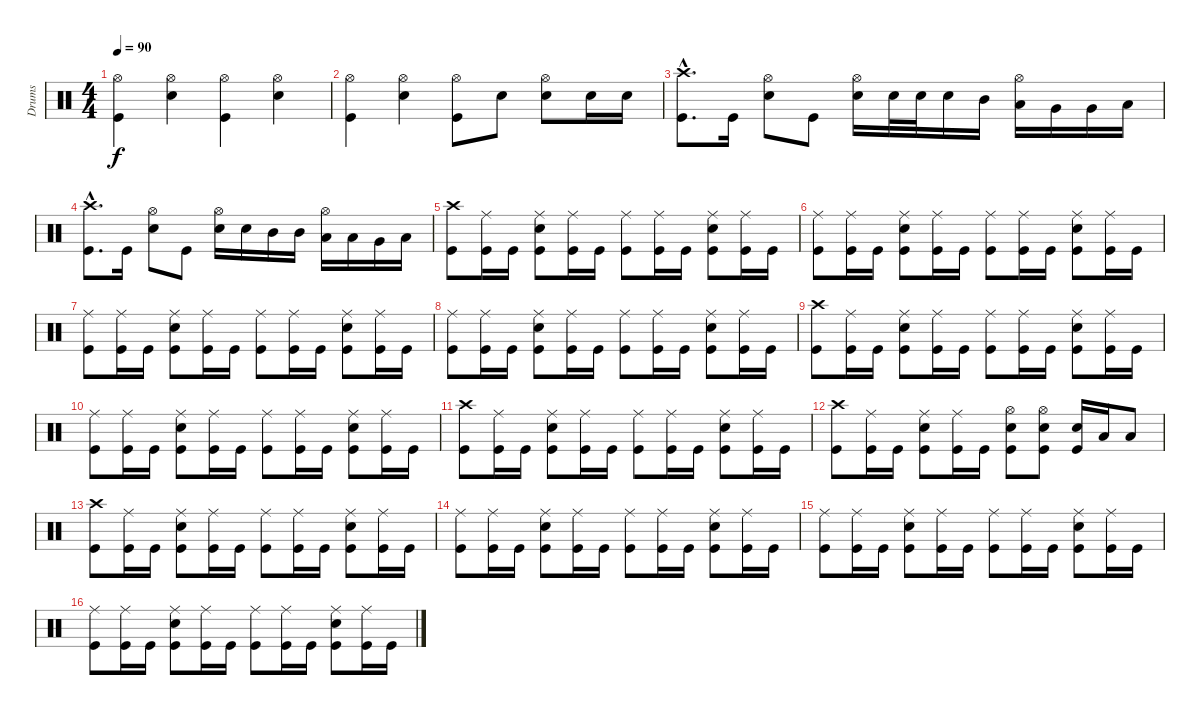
\track ("Drums" "Drums") {instrument percussion}
\staff {score}
\articulation defaults
\ts (4 4)
\tempo 90
\clef neutral
\ks c
("Hi-Hat (open)" "Kick (hit)").4{dy f} ("Hi-Hat (open)" "Electric Snare (hit)").4 ("Hi-Hat (open)" "Kick (hit)").4 ("Hi-Hat (open)" "Electric Snare (hit)").4 |
("Hi-Hat (open)" "Kick (hit)").4 ("Hi-Hat (open)" "Electric Snare (hit)").4 ("Hi-Hat (open)" "Kick (hit)").8 "Electric Snare (hit)".8 ("Hi-Hat (open)" "Electric Snare (hit)").8 "Electric Snare (hit)".16 "Electric Snare (hit)".16 |
("Crash high (hit)"{hac} "Kick (hit)"{hac}).8{d} "Kick (hit)".16 ("Hi-Hat (open)" "Electric Snare (hit)").8 "Kick (hit)".8 ("Hi-Hat (open)" "Electric Snare (hit)").16 "Electric Snare (hit)".32 "Electric Snare (hit)".32 "Electric Snare (hit)".16 "Mid Tom (hit)".16 ("Hi-Hat (open)" "Low Tom (hit)").16 "Very Low Tom (hit)".16 "Very Low Tom (hit)".16 "Low Floor Tom (hit)".16 |
("Crash high (hit)"{hac} "Kick (hit)"{hac}).8{d} "Kick (hit)".16 ("Hi-Hat (open)" "Electric Snare (hit)").8 "Kick (hit)".8 ("Hi-Hat (open)" "Electric Snare (hit)").16 "Electric Snare (hit)".16 "Mid Tom (hit)".16 "Mid Tom (hit)".16 ("Hi-Hat (open)" "Low Tom (hit)").16 "Low Tom (hit)".16 "Very Low Tom (hit)".16 "Low Floor Tom (hit)".16 |
("Crash high (hit)" "Kick (hit)").8 ("Ride (middle)" "Kick (hit)").16 "Kick (hit)".16 ("Ride (middle)" "Electric Snare (hit)" "Kick (hit)").8 ("Ride (middle)" "Kick (hit)").16 "Kick (hit)".16 ("Ride (middle)" "Kick (hit)").8 ("Ride (middle)" "Kick (hit)").16 "Kick (hit)".16 ("Ride (middle)" "Electric Snare (hit)" "Kick (hit)").8 ("Ride (middle)" "Kick (hit)").16 "Kick (hit)".16 |
("Ride (middle)" "Kick (hit)").8 ("Ride (middle)" "Kick (hit)").16 "Kick (hit)".16 ("Ride (middle)" "Electric Snare (hit)" "Kick (hit)").8 ("Ride (middle)" "Kick (hit)").16 "Kick (hit)".16 ("Ride (middle)" "Kick (hit)").8 ("Ride (middle)" "Kick (hit)").16 "Kick (hit)".16 ("Ride (middle)" "Electric Snare (hit)" "Kick (hit)").8 ("Ride (middle)" "Kick (hit)").16 "Kick (hit)".16 |
("Ride (middle)" "Kick (hit)").8 ("Ride (middle)" "Kick (hit)").16 "Kick (hit)".16 ("Ride (middle)" "Electric Snare (hit)" "Kick (hit)").8 ("Ride (middle)" "Kick (hit)").16 "Kick (hit)".16 ("Ride (middle)" "Kick (hit)").8 ("Ride (middle)" "Kick (hit)").16 "Kick (hit)".16 ("Ride (middle)" "Electric Snare (hit)" "Kick (hit)").8 ("Ride (middle)" "Kick (hit)").16 "Kick (hit)".16 |
("Ride (middle)" "Kick (hit)").8 ("Ride (middle)" "Kick (hit)").16 "Kick (hit)".16 ("Ride (middle)" "Electric Snare (hit)" "Kick (hit)").8 ("Ride (middle)" "Kick (hit)").16 "Kick (hit)".16 ("Ride (middle)" "Kick (hit)").8 ("Ride (middle)" "Kick (hit)").16 "Kick (hit)".16 ("Ride (middle)" "Electric Snare (hit)" "Kick (hit)").8 ("Ride (middle)" "Kick (hit)").16 "Kick (hit)".16 |
("Crash high (hit)" "Kick (hit)").8 ("Ride (middle)" "Kick (hit)").16 "Kick (hit)".16 ("Ride (middle)" "Electric Snare (hit)" "Kick (hit)").8 ("Ride (middle)" "Kick (hit)").16 "Kick (hit)".16 ("Ride (middle)" "Kick (hit)").8 ("Ride (middle)" "Kick (hit)").16 "Kick (hit)".16 ("Ride (middle)" "Electric Snare (hit)" "Kick (hit)").8 ("Ride (middle)" "Kick (hit)").16 "Kick (hit)".16 |
("Ride (middle)" "Kick (hit)").8 ("Ride (middle)" "Kick (hit)").16 "Kick (hit)".16 ("Ride (middle)" "Electric Snare (hit)" "Kick (hit)").8 ("Ride (middle)" "Kick (hit)").16 "Kick (hit)".16 ("Ride (middle)" "Kick (hit)").8 ("Ride (middle)" "Kick (hit)").16 "Kick (hit)".16 ("Ride (middle)" "Electric Snare (hit)" "Kick (hit)").8 ("Ride (middle)" "Kick (hit)").16 "Kick (hit)".16 |
("Crash high (hit)" "Kick (hit)").8 ("Ride (middle)" "Kick (hit)").16 "Kick (hit)".16 ("Ride (middle)" "Electric Snare (hit)" "Kick (hit)").8 ("Ride (middle)" "Kick (hit)").16 "Kick (hit)".16 ("Ride (middle)" "Kick (hit)").8 ("Ride (middle)" "Kick (hit)").16 "Kick (hit)".16 ("Ride (middle)" "Electric Snare (hit)" "Kick (hit)").8 ("Ride (middle)" "Kick (hit)").16 "Kick (hit)".16 |
("Crash high (hit)" "Kick (hit)").8 ("Ride (middle)" "Kick (hit)").16 "Kick (hit)".16 ("Ride (middle)" "Electric Snare (hit)" "Kick (hit)").8 ("Ride (middle)" "Kick (hit)").16 "Kick (hit)".16 ("Hi-Hat (open)" "Electric Snare (hit)" "Kick (hit)").8 ("Hi-Hat (open)" "Electric Snare (hit)" "Kick (hit)").8 ("Electric Snare (hit)" "Kick (hit)").16 "Low Tom (hit)".16 "Low Floor Tom (hit)".8 |
("Crash high (hit)" "Kick (hit)").8 ("Ride (middle)" "Kick (hit)").16 "Kick (hit)".16 ("Ride (middle)" "Electric Snare (hit)" "Kick (hit)").8 ("Ride (middle)" "Kick (hit)").16 "Kick (hit)".16 ("Ride (middle)" "Kick (hit)").8 ("Ride (middle)" "Kick (hit)").16 "Kick (hit)".16 ("Ride (middle)" "Electric Snare (hit)" "Kick (hit)").8 ("Ride (middle)" "Kick (hit)").16 "Kick (hit)".16 |
("Ride (middle)" "Kick (hit)").8 ("Ride (middle)" "Kick (hit)").16 "Kick (hit)".16 ("Ride (middle)" "Electric Snare (hit)" "Kick (hit)").8 ("Ride (middle)" "Kick (hit)").16 "Kick (hit)".16 ("Ride (middle)" "Kick (hit)").8 ("Ride (middle)" "Kick (hit)").16 "Kick (hit)".16 ("Ride (middle)" "Electric Snare (hit)" "Kick (hit)").8 ("Ride (middle)" "Kick (hit)").16 "Kick (hit)".16 |
("Ride (middle)" "Kick (hit)").8 ("Ride (middle)" "Kick (hit)").16 "Kick (hit)".16 ("Ride (middle)" "Electric Snare (hit)" "Kick (hit)").8 ("Ride (middle)" "Kick (hit)").16 "Kick (hit)".16 ("Ride (middle)" "Kick (hit)").8 ("Ride (middle)" "Kick (hit)").16 "Kick (hit)".16 ("Ride (middle)" "Electric Snare (hit)" "Kick (hit)").8 ("Ride (middle)" "Kick (hit)").16 "Kick (hit)".16 |
("Ride (middle)" "Kick (hit)").8 ("Ride (middle)" "Kick (hit)").16 "Kick (hit)".16 ("Ride (middle)" "Electric Snare (hit)" "Kick (hit)").8 ("Ride (middle)" "Kick (hit)").16 "Kick (hit)".16 ("Ride (middle)" "Kick (hit)").8 ("Ride (middle)" "Kick (hit)").16 "Kick (hit)".16 ("Ride (middle)" "Electric Snare (hit)" "Kick (hit)").8 ("Ride (middle)" "Kick (hit)").16 "Kick (hit)".16
